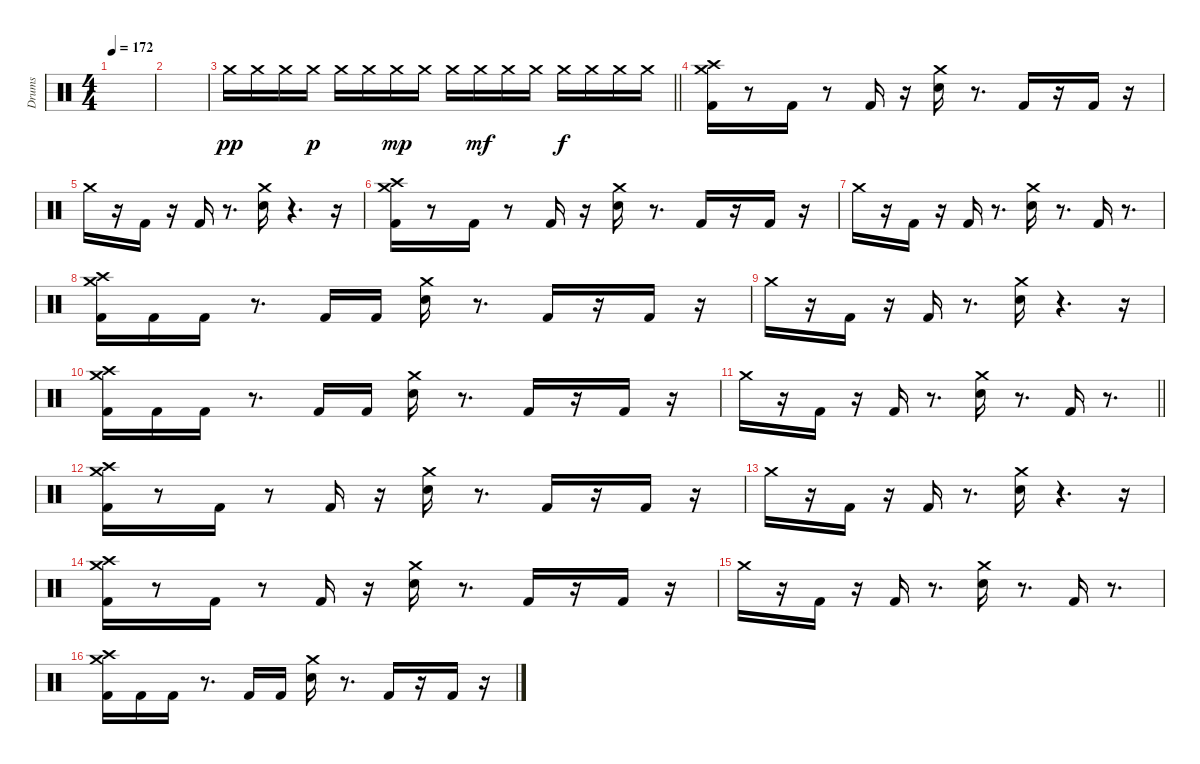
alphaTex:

\track ("Drums" "Drums") {instrument percussion}
\staff {score}
\articulation defaults
\ts (4 4)
\tempo 172
\clef neutral
\ks c
|
|
\barLineRight lightlight "Crash medium (hit)".16{dy pp} "Crash medium (hit)".16 "Crash medium (hit)".16 "Crash medium (hit)".16{dy p} "Crash medium (hit)".16 "Crash medium (hit)".16 "Crash medium (hit)".16{dy mp} "Crash medium (hit)".16 "Crash medium (hit)".16 "Crash medium (hit)".16{dy mf} "Crash medium (hit)".16 "Crash medium (hit)".16 "Crash medium (hit)".16{dy f} "Crash medium (hit)".16 "Crash medium (hit)".16 "Crash medium (hit)".16
|
\section ("" " ")
("Kick (hit) 2" "Crash medium (hit)" "Crash high (hit)").16 r.8 "Kick (hit) 2".16 r.8 "Kick (hit) 2".16 r.16 ("Snare (hit) 2" "Crash medium (hit)").16 r.8{d} "Kick (hit) 2".16 r.16 "Kick (hit) 2".16 r.16 |
"Crash medium (hit)".16 r.16 "Kick (hit) 2".16 r.16 "Kick (hit) 2".16 r.8{d} ("Snare (hit) 2" "Crash medium (hit)").16 r.4{d} r.16 |
("Kick (hit) 2" "Crash medium (hit)" "Crash high (hit)").16 r.8 "Kick (hit) 2".16 r.8 "Kick (hit) 2".16 r.16 ("Snare (hit) 2" "Crash medium (hit)").16 r.8{d} "Kick (hit) 2".16 r.16 "Kick (hit) 2".16 r.16 |
"Crash medium (hit)".16 r.16 "Kick (hit) 2".16 r.16 "Kick (hit) 2".16 r.8{d} ("Snare (hit) 2" "Crash medium (hit)").16 r.8{d} "Kick (hit) 2".16 r.8{d} |
("Kick (hit) 2" "Crash medium (hit)" "Crash high (hit)").16 "Kick (hit) 2".16 "Kick (hit) 2".16 r.8{d} "Kick (hit) 2".16 "Kick (hit) 2".16 ("Snare (hit) 2" "Crash medium (hit)").16 r.8{d} "Kick (hit) 2".16 r.16 "Kick (hit) 2".16 r.16 |
"Crash medium (hit)".16 r.16 "Kick (hit) 2".16 r.16 "Kick (hit) 2".16 r.8{d} ("Snare (hit) 2" "Crash medium (hit)").16 r.4{d} r.16 |
("Kick (hit) 2" "Crash medium (hit)" "Crash high (hit)").16 "Kick (hit) 2".16 "Kick (hit) 2".16 r.8{d} "Kick (hit) 2".16 "Kick (hit) 2".16 ("Snare (hit) 2" "Crash medium (hit)").16 r.8{d} "Kick (hit) 2".16 r.16 "Kick (hit) 2".16 r.16 |
\barLineRight lightlight "Crash medium (hit)".16
r.16 "Kick (hit) 2".16 r.16 "Kick (hit) 2".16 r.8{d} ("Snare (hit) 2" "Crash medium (hit)").16 r.8{d} "Kick (hit) 2".16 r.8{d} |
\section ("" " ")
("Kick (hit) 2" "Crash medium (hit)" "Crash high (hit)").16 r.8 "Kick (hit) 2".16 r.8 "Kick (hit) 2".16 r.16 ("Snare (hit) 2" "Crash medium (hit)").16 r.8{d} "Kick (hit) 2".16 r.16 "Kick (hit) 2".16 r.16 |
"Crash medium (hit)".16 r.16 "Kick (hit) 2".16 r.16 "Kick (hit) 2".16 r.8{d} ("Snare (hit) 2" "Crash medium (hit)").16 r.4{d} r.16 |
("Kick (hit) 2" "Crash medium (hit)" "Crash high (hit)").16 r.8 "Kick (hit) 2".16 r.8 "Kick (hit) 2".16 r.16 ("Snare (hit) 2" "Crash medium (hit)").16 r.8{d} "Kick (hit) 2".16 r.16 "Kick (hit) 2".16 r.16 |
"Crash medium (hit)".16 r.16 "Kick (hit) 2".16 r.16 "Kick (hit) 2".16 r.8{d} ("Snare (hit) 2" "Crash medium (hit)").16 r.8{d} "Kick (hit) 2".16 r.8{d} |
("Kick (hit) 2" "Crash medium (hit)" "Crash high (hit)").16 "Kick (hit) 2".16 "Kick (hit) 2".16 r.8{d} "Kick (hit) 2".16 "Kick (hit) 2".16 ("Snare (hit) 2" "Crash medium (hit)").16 r.8{d} "Kick (hit) 2".16 r.16 "Kick (hit) 2".16 r.16
